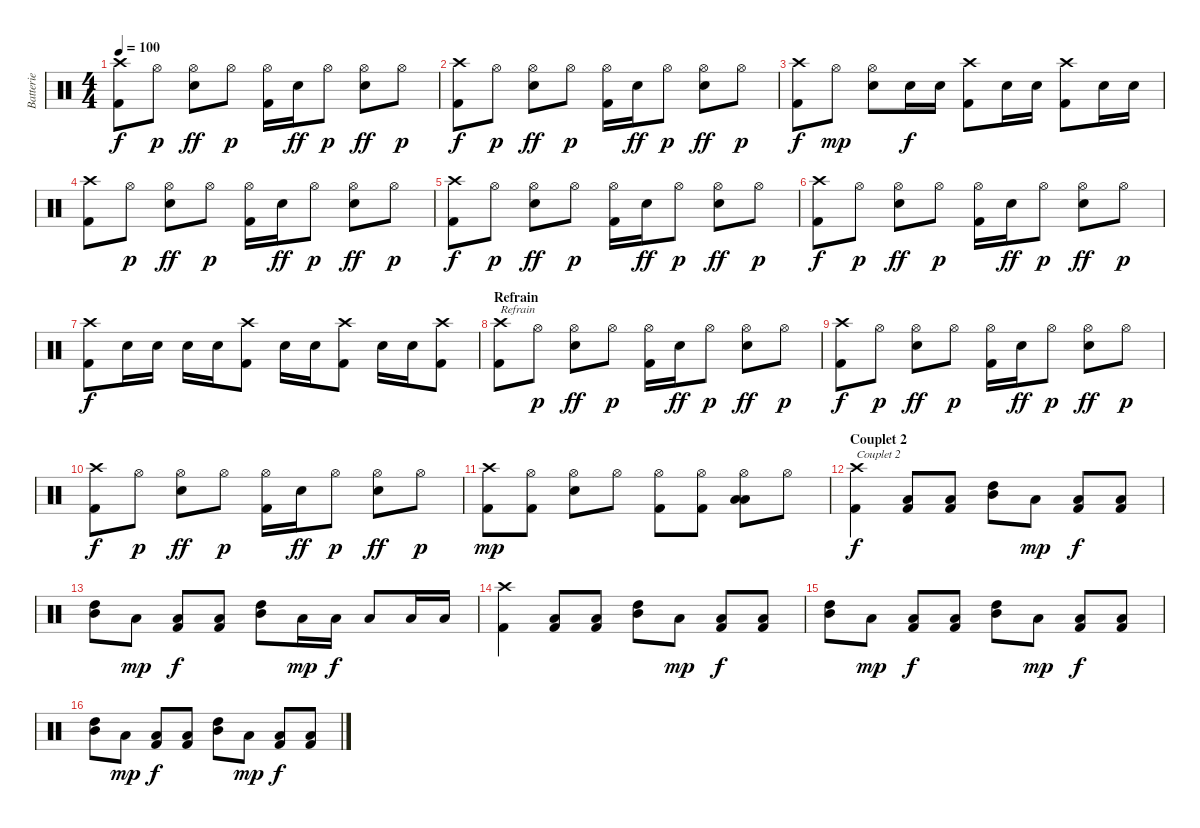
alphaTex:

\track ("Batterie" "Batterie") {instrument percussion}
\staff {score}
\articulation defaults
\ts (4 4)
\tempo 100
\clef neutral
\ks c
("Crash high (hit)" "Kick (hit) 2").8{dy f} "Hi-Hat (open)".8{dy p} ("Hi-Hat (open)" "Electric Snare (hit)").8{dy ff} "Hi-Hat (open)".8{dy p} ("Hi-Hat (open)" "Kick (hit) 2").16 "Electric Snare (hit)".16{dy ff} "Hi-Hat (open)".8{dy p} ("Hi-Hat (open)" "Electric Snare (hit)").8{dy ff} "Hi-Hat (open)".8{dy p} |
("Crash high (hit)" "Kick (hit) 2").8{dy f} "Hi-Hat (open)".8{dy p} ("Hi-Hat (open)" "Electric Snare (hit)").8{dy ff} "Hi-Hat (open)".8{dy p} ("Hi-Hat (open)" "Kick (hit) 2").16 "Electric Snare (hit)".16{dy ff} "Hi-Hat (open)".8{dy p} ("Hi-Hat (open)" "Electric Snare (hit)").8{dy ff} "Hi-Hat (open)".8{dy p} |
("Crash high (hit)" "Kick (hit) 2").8{dy f} "Hi-Hat (open)".8{dy mp} ("Hi-Hat (open)" "Electric Snare (hit)").8 "Electric Snare (hit)".16{dy f} "Electric Snare (hit)".16 ("Crash high (hit)" "Kick (hit) 2").8 "Electric Snare (hit)".16 "Electric Snare (hit)".16 ("Crash high (hit)" "Kick (hit) 2").8 "Electric Snare (hit)".16 "Electric Snare (hit)".16 |
("Crash high (hit)" "Kick (hit) 2").8 "Hi-Hat (open)".8{dy p} ("Hi-Hat (open)" "Electric Snare (hit)").8{dy ff} "Hi-Hat (open)".8{dy p} ("Hi-Hat (open)" "Kick (hit) 2").16 "Electric Snare (hit)".16{dy ff} "Hi-Hat (open)".8{dy p} ("Hi-Hat (open)" "Electric Snare (hit)").8{dy ff} "Hi-Hat (open)".8{dy p} |
("Crash high (hit)" "Kick (hit) 2").8{dy f} "Hi-Hat (open)".8{dy p} ("Hi-Hat (open)" "Electric Snare (hit)").8{dy ff} "Hi-Hat (open)".8{dy p} ("Hi-Hat (open)" "Kick (hit) 2").16 "Electric Snare (hit)".16{dy ff} "Hi-Hat (open)".8{dy p} ("Hi-Hat (open)" "Electric Snare (hit)").8{dy ff} "Hi-Hat (open)".8{dy p} |
("Crash high (hit)" "Kick (hit) 2").8{dy f} "Hi-Hat (open)".8{dy p} ("Hi-Hat (open)" "Electric Snare (hit)").8{dy ff} "Hi-Hat (open)".8{dy p} ("Hi-Hat (open)" "Kick (hit) 2").16 "Electric Snare (hit)".16{dy ff} "Hi-Hat (open)".8{dy p} ("Hi-Hat (open)" "Electric Snare (hit)").8{dy ff} "Hi-Hat (open)".8{dy p} |
("Crash high (hit)" "Kick (hit) 2").8{dy f} "Electric Snare (hit)".16 "Electric Snare (hit)".16 "Electric Snare (hit)".16 "Electric Snare (hit)".16 ("Crash high (hit)" "Kick (hit) 2").8 "Electric Snare (hit)".16 "Electric Snare (hit)".16 ("Crash high (hit)" "Kick (hit) 2").8 "Electric Snare (hit)".16 "Electric Snare (hit)".16 ("Crash high (hit)" "Kick (hit) 2").8 |
\section ("" "Refrain")
("Crash high (hit)" "Kick (hit) 2").8{txt "Refrain"} "Hi-Hat (open)".8{dy p} ("Hi-Hat (open)" "Electric Snare (hit)").8{dy ff} "Hi-Hat (open)".8{dy p} ("Hi-Hat (open)" "Kick (hit) 2").16 "Electric Snare (hit)".16{dy ff} "Hi-Hat (open)".8{dy p} ("Hi-Hat (open)" "Electric Snare (hit)").8{dy ff} "Hi-Hat (open)".8{dy p} |
("Crash high (hit)" "Kick (hit) 2").8{dy f} "Hi-Hat (open)".8{dy p} ("Hi-Hat (open)" "Electric Snare (hit)").8{dy ff} "Hi-Hat (open)".8{dy p} ("Hi-Hat (open)" "Kick (hit) 2").16 "Electric Snare (hit)".16{dy ff} "Hi-Hat (open)".8{dy p} ("Hi-Hat (open)" "Electric Snare (hit)").8{dy ff} "Hi-Hat (open)".8{dy p} |
("Crash high (hit)" "Kick (hit) 2").8{dy f} "Hi-Hat (open)".8{dy p} ("Hi-Hat (open)" "Electric Snare (hit)").8{dy ff} "Hi-Hat (open)".8{dy p} ("Hi-Hat (open)" "Kick (hit) 2").16 "Electric Snare (hit)".16{dy ff} "Hi-Hat (open)".8{dy p} ("Hi-Hat (open)" "Electric Snare (hit)").8{dy ff} "Hi-Hat (open)".8{dy p} |
("Crash high (hit)" "Kick (hit) 2").8{dy mp} ("Hi-Hat (open)" "Kick (hit) 2").8 ("Hi-Hat (open)" "Electric Snare (hit)").8 "Hi-Hat (open)".8 ("Hi-Hat (open)" "Kick (hit) 2").8 ("Hi-Hat (open)" "Kick (hit) 2").8 ("Hi-Hat (open)" "Low Floor Tom (hit)" "Low Tom (hit)").8 "Hi-Hat (open)".8 |
\section ("" "Couplet 2")
("Crash high (hit)" "Kick (hit) 2").4{txt "Couplet 2" dy f} ("Low Floor Tom (hit)" "Kick (hit) 2").8 ("Low Floor Tom (hit)" "Kick (hit) 2").8 ("High Tom (hit)" "Mid Tom (hit)").8 "Low Tom (hit)".8{dy mp} ("Low Floor Tom (hit)" "Kick (hit) 2").8{dy f} ("Low Floor Tom (hit)" "Kick (hit) 2").8 |
("High Tom (hit)" "Mid Tom (hit)").8 "Low Tom (hit)".8{dy mp} ("Low Floor Tom (hit)" "Kick (hit) 2").8{dy f} ("Low Floor Tom (hit)" "Kick (hit) 2").8 ("High Tom (hit)" "Mid Tom (hit)").8 "Low Tom (hit)".16{dy mp} "Low Tom (hit)".16{dy f} "Low Tom (hit)".8 "Low Tom (hit)".16 "Low Tom (hit)".16 |
("Crash high (hit)" "Kick (hit) 2").4 ("Low Floor Tom (hit)" "Kick (hit) 2").8 ("Low Floor Tom (hit)" "Kick (hit) 2").8 ("High Tom (hit)" "Mid Tom (hit)").8 "Low Tom (hit)".8{dy mp} ("Low Floor Tom (hit)" "Kick (hit) 2").8{dy f} ("Low Floor Tom (hit)" "Kick (hit) 2").8 |
("High Tom (hit)" "Mid Tom (hit)").8 "Low Tom (hit)".8{dy mp} ("Low Floor Tom (hit)" "Kick (hit) 2").8{dy f} ("Low Floor Tom (hit)" "Kick (hit) 2").8 ("High Tom (hit)" "Mid Tom (hit)").8 "Low Tom (hit)".8{dy mp} ("Low Floor Tom (hit)" "Kick (hit) 2").8{dy f} ("Low Floor Tom (hit)" "Kick (hit) 2").8 |
("High Tom (hit)" "Mid Tom (hit)").8 "Low Tom (hit)".8{dy mp} ("Low Floor Tom (hit)" "Kick (hit) 2").8{dy f} ("Low Floor Tom (hit)" "Kick (hit) 2").8 ("High Tom (hit)" "Mid Tom (hit)").8 "Low Tom (hit)".8{dy mp} ("Low Floor Tom (hit)" "Kick (hit) 2").8{dy f} ("Low Floor Tom (hit)" "Kick (hit) 2").8
